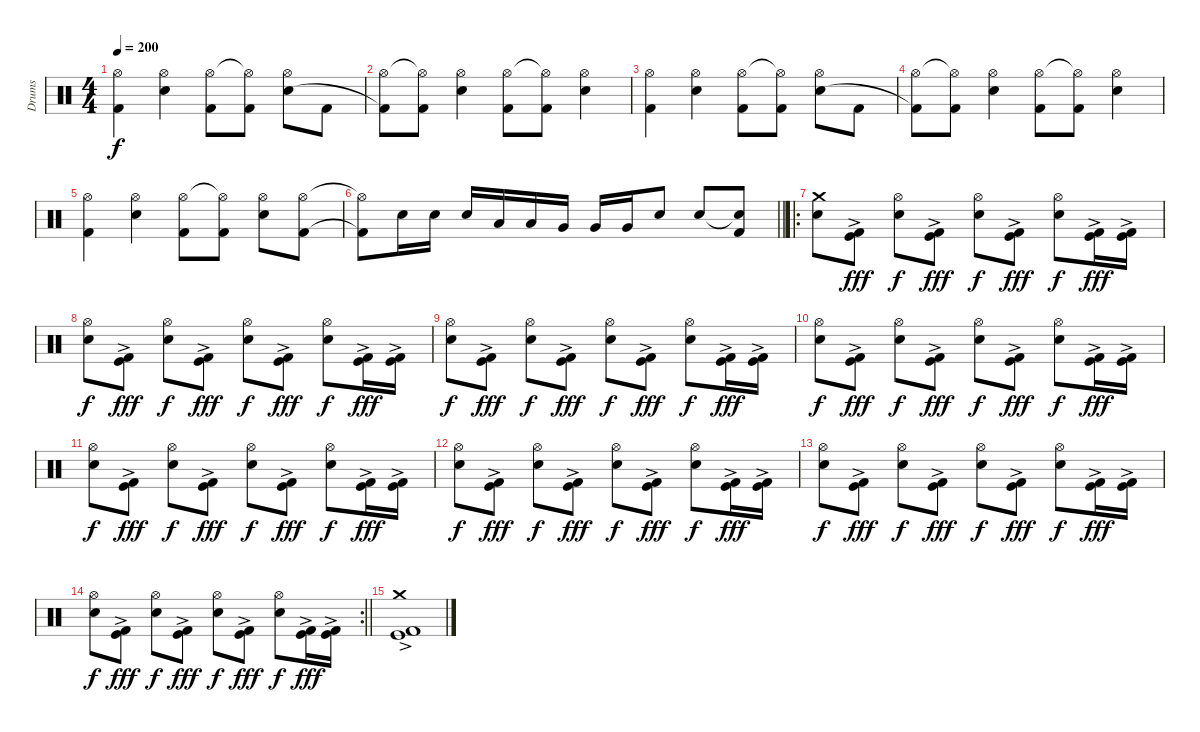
\track ("Drums" "Drums") {instrument percussion}
\staff {score}
\articulation defaults
\ts (4 4)
\tempo 200
\clef neutral
\ks c
("Hi-Hat (open)" "Kick (hit) 2").4{dy f} ("Hi-Hat (open)" "Electric Snare (hit)").4 ("Hi-Hat (open)" "Kick (hit) 2").8 ("Hi-Hat (open)"{t} "Kick (hit) 2").8 ("Hi-Hat (open)" "Electric Snare (hit)").8 "Kick (hit) 2".8 |
("Hi-Hat (open)" "Kick (hit) 2"{t}).8 ("Hi-Hat (open)"{t} "Kick (hit) 2").8 ("Hi-Hat (open)" "Electric Snare (hit)").4 ("Hi-Hat (open)" "Kick (hit) 2").8 ("Hi-Hat (open)"{t} "Kick (hit) 2").8 ("Hi-Hat (open)" "Electric Snare (hit)").4 |
("Hi-Hat (open)" "Kick (hit) 2").4 ("Hi-Hat (open)" "Electric Snare (hit)").4 ("Hi-Hat (open)" "Kick (hit) 2").8 ("Hi-Hat (open)"{t} "Kick (hit) 2").8 ("Hi-Hat (open)" "Electric Snare (hit)").8 "Kick (hit) 2".8 |
("Hi-Hat (open)" "Kick (hit) 2"{t}).8 ("Hi-Hat (open)"{t} "Kick (hit) 2").8 ("Hi-Hat (open)" "Electric Snare (hit)").4 ("Hi-Hat (open)" "Kick (hit) 2").8 ("Hi-Hat (open)"{t} "Kick (hit) 2").8 ("Hi-Hat (open)" "Electric Snare (hit)").4 |
("Hi-Hat (open)" "Kick (hit) 2").4 ("Hi-Hat (open)" "Electric Snare (hit)").4 ("Hi-Hat (open)" "Kick (hit) 2").8 ("Hi-Hat (open)"{t} "Kick (hit) 2").8 ("Hi-Hat (open)" "Electric Snare (hit)").8 ("Hi-Hat (open)" "Kick (hit) 2").8 |
\barLineRight lightlight
("Hi-Hat (open)"{t} "Kick (hit) 2"{t}).8 "Electric Snare (hit)".16 "Electric Snare (hit)".16 "Electric Snare (hit)".16 "Low Tom (hit)".16 "Low Tom (hit)".16 "Very Low Tom (hit)".16 "Very Low Tom (hit)".16 "Very Low Tom (hit)".16 "Electric Snare (hit)".8 "Electric Snare (hit)".8 ("Electric Snare (hit)"{t} "Kick (hit) 2").8 |
\ro
("Crash medium (hit)" "Electric Snare (hit)").8 ("Kick (hit)" "Kick (hit) 2"{ac}).8{dy fff} ("Hi-Hat (open)" "Electric Snare (hit)").8{dy f} ("Kick (hit)" "Kick (hit) 2"{ac}).8{dy fff} ("Hi-Hat (open)" "Electric Snare (hit)").8{dy f} ("Kick (hit)" "Kick (hit) 2"{ac}).8{dy fff} ("Hi-Hat (open)" "Electric Snare (hit)").8{dy f} ("Kick (hit)" "Kick (hit) 2"{ac}).16{dy fff} ("Kick (hit)" "Kick (hit) 2"{ac}).16 |
("Hi-Hat (open)" "Electric Snare (hit)").8{dy f} ("Kick (hit)" "Kick (hit) 2"{ac}).8{dy fff} ("Hi-Hat (open)" "Electric Snare (hit)").8{dy f} ("Kick (hit)" "Kick (hit) 2"{ac}).8{dy fff} ("Hi-Hat (open)" "Electric Snare (hit)").8{dy f} ("Kick (hit)" "Kick (hit) 2"{ac}).8{dy fff} ("Hi-Hat (open)" "Electric Snare (hit)").8{dy f} ("Kick (hit)" "Kick (hit) 2"{ac}).16{dy fff} ("Kick (hit)" "Kick (hit) 2"{ac}).16 |
("Hi-Hat (open)" "Electric Snare (hit)").8{dy f} ("Kick (hit)" "Kick (hit) 2"{ac}).8{dy fff} ("Hi-Hat (open)" "Electric Snare (hit)").8{dy f} ("Kick (hit)" "Kick (hit) 2"{ac}).8{dy fff} ("Hi-Hat (open)" "Electric Snare (hit)").8{dy f} ("Kick (hit)" "Kick (hit) 2"{ac}).8{dy fff} ("Hi-Hat (open)" "Electric Snare (hit)").8{dy f} ("Kick (hit)" "Kick (hit) 2"{ac}).16{dy fff} ("Kick (hit)" "Kick (hit) 2"{ac}).16 |
("Hi-Hat (open)" "Electric Snare (hit)").8{dy f} ("Kick (hit)" "Kick (hit) 2"{ac}).8{dy fff} ("Hi-Hat (open)" "Electric Snare (hit)").8{dy f} ("Kick (hit)" "Kick (hit) 2"{ac}).8{dy fff} ("Hi-Hat (open)" "Electric Snare (hit)").8{dy f} ("Kick (hit)" "Kick (hit) 2"{ac}).8{dy fff} ("Hi-Hat (open)" "Electric Snare (hit)").8{dy f} ("Kick (hit)" "Kick (hit) 2"{ac}).16{dy fff} ("Kick (hit)" "Kick (hit) 2"{ac}).16 |
("Hi-Hat (open)" "Electric Snare (hit)").8{dy f} ("Kick (hit)" "Kick (hit) 2"{ac}).8{dy fff} ("Hi-Hat (open)" "Electric Snare (hit)").8{dy f} ("Kick (hit)" "Kick (hit) 2"{ac}).8{dy fff} ("Hi-Hat (open)" "Electric Snare (hit)").8{dy f} ("Kick (hit)" "Kick (hit) 2"{ac}).8{dy fff} ("Hi-Hat (open)" "Electric Snare (hit)").8{dy f} ("Kick (hit)" "Kick (hit) 2"{ac}).16{dy fff} ("Kick (hit)" "Kick (hit) 2"{ac}).16 |
("Hi-Hat (open)" "Electric Snare (hit)").8{dy f} ("Kick (hit)" "Kick (hit) 2"{ac}).8{dy fff} ("Hi-Hat (open)" "Electric Snare (hit)").8{dy f} ("Kick (hit)" "Kick (hit) 2"{ac}).8{dy fff} ("Hi-Hat (open)" "Electric Snare (hit)").8{dy f} ("Kick (hit)" "Kick (hit) 2"{ac}).8{dy fff} ("Hi-Hat (open)" "Electric Snare (hit)").8{dy f} ("Kick (hit)" "Kick (hit) 2"{ac}).16{dy fff} ("Kick (hit)" "Kick (hit) 2"{ac}).16 |
("Hi-Hat (open)" "Electric Snare (hit)").8{dy f} ("Kick (hit)" "Kick (hit) 2"{ac}).8{dy fff} ("Hi-Hat (open)" "Electric Snare (hit)").8{dy f} ("Kick (hit)" "Kick (hit) 2"{ac}).8{dy fff} ("Hi-Hat (open)" "Electric Snare (hit)").8{dy f} ("Kick (hit)" "Kick (hit) 2"{ac}).8{dy fff} ("Hi-Hat (open)" "Electric Snare (hit)").8{dy f} ("Kick (hit)" "Kick (hit) 2"{ac}).16{dy fff} ("Kick (hit)" "Kick (hit) 2"{ac}).16 |
\rc 2
\barLineRight lightlight
("Hi-Hat (open)" "Electric Snare (hit)").8{dy f} ("Kick (hit)" "Kick (hit) 2"{ac}).8{dy fff} ("Hi-Hat (open)" "Electric Snare (hit)").8{dy f} ("Kick (hit)" "Kick (hit) 2"{ac}).8{dy fff} ("Hi-Hat (open)" "Electric Snare (hit)").8{dy f} ("Kick (hit)" "Kick (hit) 2"{ac}).8{dy fff} ("Hi-Hat (open)" "Electric Snare (hit)").8{dy f} ("Kick (hit)" "Kick (hit) 2"{ac}).16{dy fff} ("Kick (hit)" "Kick (hit) 2"{ac}).16 |
("Crash medium (hit)"{ac} "Kick (hit)"{ac} "Kick (hit) 2"{ac}).1
